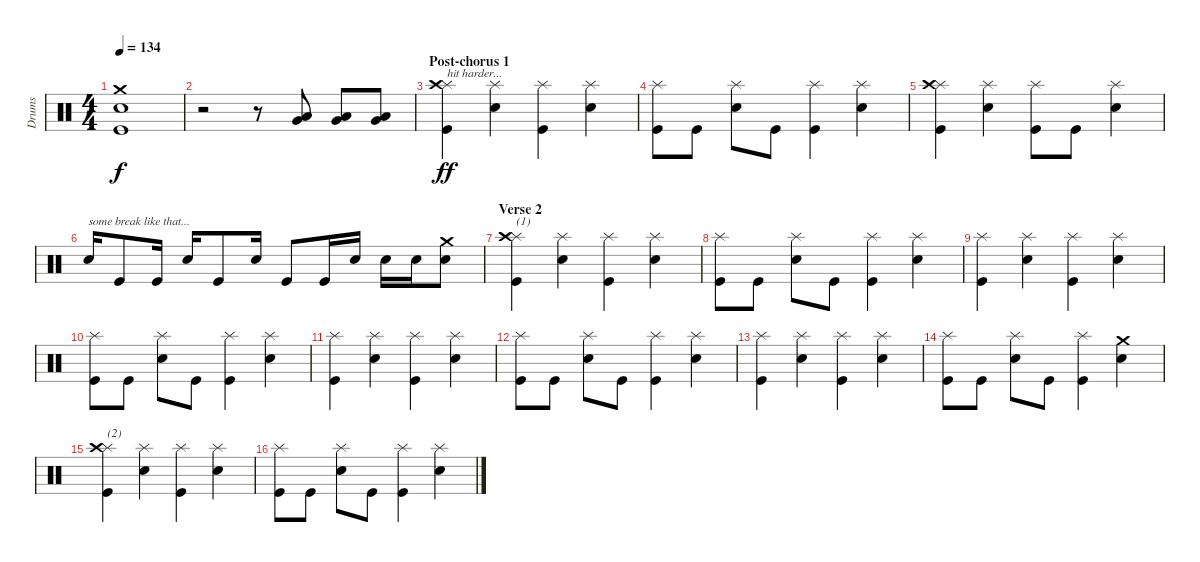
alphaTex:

\track ("Drums" "Drums") {instrument percussion}
\staff {score}
\articulation defaults
\ts (4 4)
\tempo 134
\clef neutral
\ks c
("Crash medium (hit)" "Snare (hit) 2" "Kick (hit)").1{dy f} |
r.2 r.8 ("Very Low Tom (hit)" "Low Tom (hit)").8 ("Very Low Tom (hit)" "Low Tom (hit)").8 ("Very Low Tom (hit)" "Low Tom (hit)").8 |
\section ("" "Post-chorus 1")
("Splash (hit)" "Crash high (hit)" "Kick (hit)").4{txt "hit harder..." dy ff} ("Splash (hit)" "Snare (hit) 2").4 ("Splash (hit)" "Kick (hit)").4 ("Splash (hit)" "Snare (hit) 2").4 |
("Splash (hit)" "Kick (hit)").8 "Kick (hit)".8 ("Splash (hit)" "Snare (hit) 2").8 "Kick (hit)".8 ("Splash (hit)" "Kick (hit)").4 ("Splash (hit)" "Snare (hit) 2").4 |
("Splash (hit)" "Crash high (hit)" "Kick (hit)").4 ("Splash (hit)" "Snare (hit) 2").4 ("Splash (hit)" "Kick (hit)").8 "Kick (hit)".8 ("Splash (hit)" "Snare (hit) 2").4 |
"Snare (hit) 2".16{txt "some break like that..."} "Kick (hit)".8 "Kick (hit)".16 "Snare (hit) 2".16 "Kick (hit)".8 "Snare (hit) 2".16 "Kick (hit)".8 "Kick (hit)".16 "Snare (hit) 2".16 "Snare (hit) 2".16 "Snare (hit) 2".16 ("Crash medium (hit)" "Snare (hit) 2").8 |
\section ("" "Verse 2")
("Splash (hit)" "Crash high (hit)" "Kick (hit)").4{txt "(1)"} ("Splash (hit)" "Snare (hit) 2").4 ("Splash (hit)" "Kick (hit)").4 ("Splash (hit)" "Snare (hit) 2").4 |
("Splash (hit)" "Kick (hit)").8 "Kick (hit)".8 ("Splash (hit)" "Snare (hit) 2").8 "Kick (hit)".8 ("Splash (hit)" "Kick (hit)").4 ("Splash (hit)" "Snare (hit) 2").4 |
("Splash (hit)" "Kick (hit)").4 ("Splash (hit)" "Snare (hit) 2").4 ("Splash (hit)" "Kick (hit)").4 ("Splash (hit)" "Snare (hit) 2").4 |
("Splash (hit)" "Kick (hit)").8 "Kick (hit)".8 ("Splash (hit)" "Snare (hit) 2").8 "Kick (hit)".8 ("Splash (hit)" "Kick (hit)").4 ("Splash (hit)" "Snare (hit) 2").4 |
("Splash (hit)" "Kick (hit)").4 ("Splash (hit)" "Snare (hit) 2").4 ("Splash (hit)" "Kick (hit)").4 ("Splash (hit)" "Snare (hit) 2").4 |
("Splash (hit)" "Kick (hit)").8 "Kick (hit)".8 ("Splash (hit)" "Snare (hit) 2").8 "Kick (hit)".8 ("Splash (hit)" "Kick (hit)").4 ("Splash (hit)" "Snare (hit) 2").4 |
("Splash (hit)" "Kick (hit)").4 ("Splash (hit)" "Snare (hit) 2").4 ("Splash (hit)" "Kick (hit)").4 ("Splash (hit)" "Snare (hit) 2").4 |
("Splash (hit)" "Kick (hit)").8 "Kick (hit)".8 ("Splash (hit)" "Snare (hit) 2").8 "Kick (hit)".8 ("Splash (hit)" "Kick (hit)").4 ("Crash medium (hit)" "Snare (hit) 2").4 |
("Splash (hit)" "Crash high (hit)" "Kick (hit)").4{txt "(2)"} ("Splash (hit)" "Snare (hit) 2").4 ("Splash (hit)" "Kick (hit)").4 ("Splash (hit)" "Snare (hit) 2").4 |
("Splash (hit)" "Kick (hit)").8 "Kick (hit)".8 ("Splash (hit)" "Snare (hit) 2").8 "Kick (hit)".8 ("Splash (hit)" "Kick (hit)").4 ("Splash (hit)" "Snare (hit) 2").4
